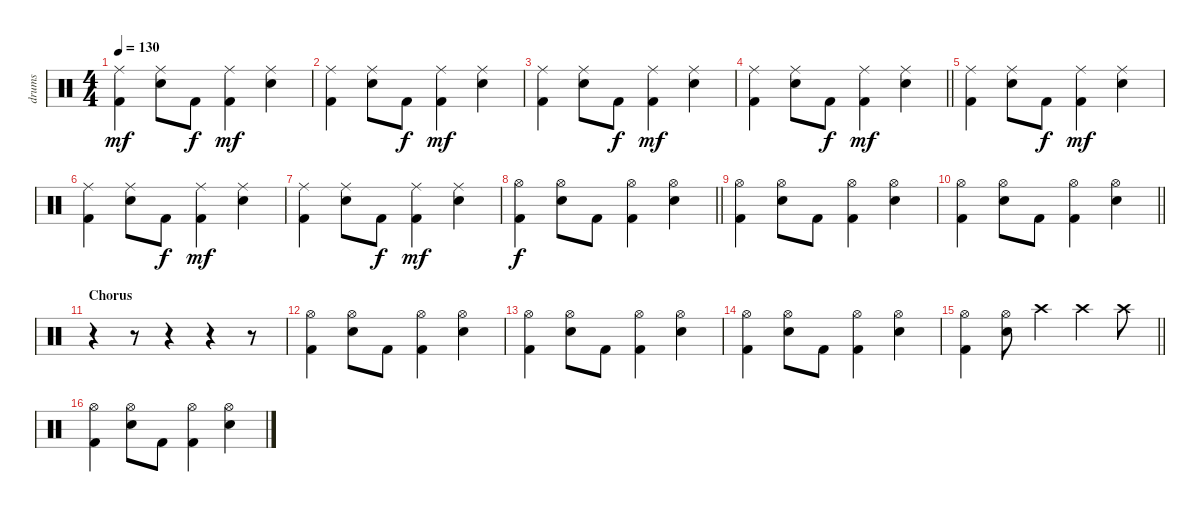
\track ("drums" "drums") {instrument percussion}
\staff {score}
\articulation defaults
\ts (4 4)
\tempo 130
\clef neutral
\ks c
("Ride (middle)" "Kick (hit) 2").4{dy mf} ("Ride (middle)" "Snare (hit) 2").8 "Kick (hit) 2".8{dy f} ("Ride (middle)" "Kick (hit) 2").4{dy mf} ("Ride (middle)" "Snare (hit) 2").4 |
("Ride (middle)" "Kick (hit) 2").4 ("Ride (middle)" "Snare (hit) 2").8 "Kick (hit) 2".8{dy f} ("Ride (middle)" "Kick (hit) 2").4{dy mf} ("Ride (middle)" "Snare (hit) 2").4 |
("Ride (middle)" "Kick (hit) 2").4 ("Ride (middle)" "Snare (hit) 2").8 "Kick (hit) 2".8{dy f} ("Ride (middle)" "Kick (hit) 2").4{dy mf} ("Ride (middle)" "Snare (hit) 2").4 |
\barLineRight lightlight
("Ride (middle)" "Kick (hit) 2").4 ("Ride (middle)" "Snare (hit) 2").8 "Kick (hit) 2".8{dy f} ("Ride (middle)" "Kick (hit) 2").4{dy mf} ("Ride (middle)" "Snare (hit) 2").4 |
("Ride (middle)" "Kick (hit) 2").4 ("Ride (middle)" "Snare (hit) 2").8 "Kick (hit) 2".8{dy f} ("Ride (middle)" "Kick (hit) 2").4{dy mf} ("Ride (middle)" "Snare (hit) 2").4 |
("Ride (middle)" "Kick (hit) 2").4 ("Ride (middle)" "Snare (hit) 2").8 "Kick (hit) 2".8{dy f} ("Ride (middle)" "Kick (hit) 2").4{dy mf} ("Ride (middle)" "Snare (hit) 2").4 |
("Ride (middle)" "Kick (hit) 2").4 ("Ride (middle)" "Snare (hit) 2").8 "Kick (hit) 2".8{dy f} ("Ride (middle)" "Kick (hit) 2").4{dy mf} ("Ride (middle)" "Snare (hit) 2").4 |
\barLineRight lightlight
("Hi-Hat (open)" "Kick (hit) 2").4{dy f} ("Hi-Hat (open)" "Snare (hit) 2").8 "Kick (hit) 2".8 ("Hi-Hat (open)" "Kick (hit) 2").4 ("Hi-Hat (open)" "Snare (hit) 2").4 |
("Hi-Hat (open)" "Kick (hit) 2").4 ("Hi-Hat (open)" "Snare (hit) 2").8 "Kick (hit) 2".8 ("Hi-Hat (open)" "Kick (hit) 2").4 ("Hi-Hat (open)" "Snare (hit) 2").4 |
\barLineRight lightlight
("Hi-Hat (open)" "Kick (hit) 2").4 ("Hi-Hat (open)" "Snare (hit) 2").8 "Kick (hit) 2".8 ("Hi-Hat (open)" "Kick (hit) 2").4 ("Hi-Hat (open)" "Snare (hit) 2").4 |
\section ("" "Chorus")
r.4 r.8 r.4 r.4 r.8 |
("Hi-Hat (open)" "Kick (hit) 2").4 ("Hi-Hat (open)" "Snare (hit) 2").8 "Kick (hit) 2".8 ("Hi-Hat (open)" "Kick (hit) 2").4 ("Hi-Hat (open)" "Snare (hit) 2").4 |
("Hi-Hat (open)" "Kick (hit) 2").4 ("Hi-Hat (open)" "Snare (hit) 2").8 "Kick (hit) 2".8 ("Hi-Hat (open)" "Kick (hit) 2").4 ("Hi-Hat (open)" "Snare (hit) 2").4 |
("Hi-Hat (open)" "Kick (hit) 2").4 ("Hi-Hat (open)" "Snare (hit) 2").8 "Kick (hit) 2".8 ("Hi-Hat (open)" "Kick (hit) 2").4 ("Hi-Hat (open)" "Snare (hit) 2").4 |
\barLineRight lightlight
("Hi-Hat (open)" "Kick (hit) 2").4 ("Hi-Hat (open)" "Snare (hit) 2").8 "Crash high (hit)".4 "Crash high (hit)".4 "Crash high (hit)".8 |
("Hi-Hat (open)" "Kick (hit) 2").4 ("Hi-Hat (open)" "Snare (hit) 2").8 "Kick (hit) 2".8 ("Hi-Hat (open)" "Kick (hit) 2").4 ("Hi-Hat (open)" "Snare (hit) 2").4
